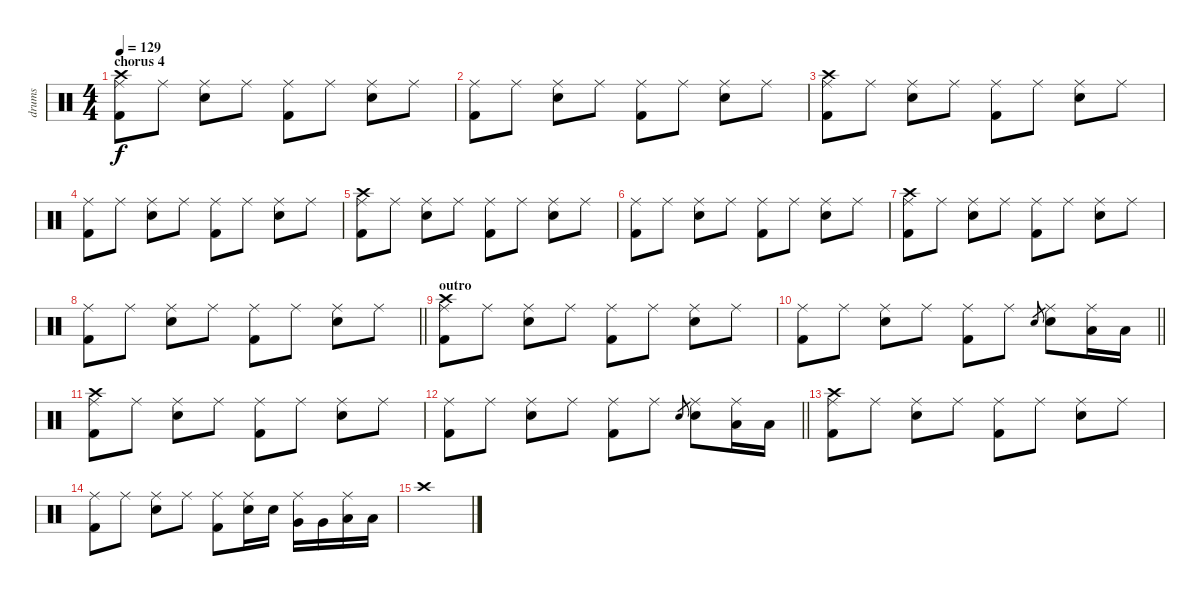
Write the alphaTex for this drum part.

\track ("drums" "drums") {instrument percussion}
\staff {score}
\articulation defaults
\ts (4 4)
\section ("" "chorus 4")
\tempo 129
\clef neutral
\ks c
("Kick (hit) 2" "Ride (middle)" "Crash high (hit)").8{dy f} "Ride (middle)".8 ("Electric Snare (hit)" "Ride (middle)").8 "Ride (middle)".8 ("Kick (hit) 2" "Ride (middle)").8 "Ride (middle)".8 ("Electric Snare (hit)" "Ride (middle)").8 "Ride (middle)".8 |
("Kick (hit) 2" "Ride (middle)").8 "Ride (middle)".8 ("Electric Snare (hit)" "Ride (middle)").8 "Ride (middle)".8 ("Kick (hit) 2" "Ride (middle)").8 "Ride (middle)".8 ("Electric Snare (hit)" "Ride (middle)").8 "Ride (middle)".8 |
("Kick (hit) 2" "Ride (middle)" "Crash high (hit)").8 "Ride (middle)".8 ("Electric Snare (hit)" "Ride (middle)").8 "Ride (middle)".8 ("Kick (hit) 2" "Ride (middle)").8 "Ride (middle)".8 ("Electric Snare (hit)" "Ride (middle)").8 "Ride (middle)".8 |
("Kick (hit) 2" "Ride (middle)").8 "Ride (middle)".8 ("Electric Snare (hit)" "Ride (middle)").8 "Ride (middle)".8 ("Kick (hit) 2" "Ride (middle)").8 "Ride (middle)".8 ("Electric Snare (hit)" "Ride (middle)").8 "Ride (middle)".8 |
("Kick (hit) 2" "Ride (middle)" "Crash high (hit)").8 "Ride (middle)".8 ("Electric Snare (hit)" "Ride (middle)").8 "Ride (middle)".8 ("Kick (hit) 2" "Ride (middle)").8 "Ride (middle)".8 ("Electric Snare (hit)" "Ride (middle)").8 "Ride (middle)".8 |
("Kick (hit) 2" "Ride (middle)").8 "Ride (middle)".8 ("Electric Snare (hit)" "Ride (middle)").8 "Ride (middle)".8 ("Kick (hit) 2" "Ride (middle)").8 "Ride (middle)".8 ("Electric Snare (hit)" "Ride (middle)").8 "Ride (middle)".8 |
("Kick (hit) 2" "Ride (middle)" "Crash high (hit)").8 "Ride (middle)".8 ("Electric Snare (hit)" "Ride (middle)").8 "Ride (middle)".8 ("Kick (hit) 2" "Ride (middle)").8 "Ride (middle)".8 ("Electric Snare (hit)" "Ride (middle)").8 "Ride (middle)".8 |
\barLineRight lightlight
("Kick (hit) 2" "Ride (middle)").8 "Ride (middle)".8 ("Electric Snare (hit)" "Ride (middle)").8 "Ride (middle)".8 ("Kick (hit) 2" "Ride (middle)").8 "Ride (middle)".8 ("Electric Snare (hit)" "Ride (middle)").8 "Ride (middle)".8 |
\section ("" "outro")
("Kick (hit) 2" "Ride (middle)" "Crash high (hit)").8 "Ride (middle)".8 ("Electric Snare (hit)" "Ride (middle)").8 "Ride (middle)".8 ("Kick (hit) 2" "Ride (middle)").8 "Ride (middle)".8 ("Electric Snare (hit)" "Ride (middle)").8 "Ride (middle)".8 |
\barLineRight lightlight
("Kick (hit) 2" "Ride (middle)").8 "Ride (middle)".8 ("Electric Snare (hit)" "Ride (middle)").8 "Ride (middle)".8 ("Kick (hit) 2" "Ride (middle)").8 "Ride (middle)".8 "Electric Snare (hit)".8{gr} ("Electric Snare (hit)" "Ride (middle)").8 ("Low Tom (hit)" "Ride (middle)").16 "Low Tom (hit)".16 |
("Kick (hit) 2" "Ride (middle)" "Crash high (hit)").8 "Ride (middle)".8 ("Electric Snare (hit)" "Ride (middle)").8 "Ride (middle)".8 ("Kick (hit) 2" "Ride (middle)").8 "Ride (middle)".8 ("Electric Snare (hit)" "Ride (middle)").8 "Ride (middle)".8 |
\barLineRight lightlight
("Kick (hit) 2" "Ride (middle)").8 "Ride (middle)".8 ("Electric Snare (hit)" "Ride (middle)").8 "Ride (middle)".8 ("Kick (hit) 2" "Ride (middle)").8 "Ride (middle)".8 "Electric Snare (hit)".8{gr} ("Electric Snare (hit)" "Ride (middle)").8 ("Low Tom (hit)" "Ride (middle)").16 "Low Tom (hit)".16 |
("Kick (hit) 2" "Ride (middle)" "Crash high (hit)").8 "Ride (middle)".8 ("Electric Snare (hit)" "Ride (middle)").8 "Ride (middle)".8 ("Kick (hit) 2" "Ride (middle)").8 "Ride (middle)".8 ("Electric Snare (hit)" "Ride (middle)").8 "Ride (middle)".8 |
("Kick (hit) 2" "Ride (middle)").8 "Ride (middle)".8 ("Electric Snare (hit)" "Ride (middle)").8 "Ride (middle)".8 ("Kick (hit) 2" "Ride (middle)").8 ("Electric Snare (hit)" "Ride (middle)").16 "Electric Snare (hit)".16 ("Very Low Tom (hit)" "Ride (middle)").16 "Very Low Tom (hit)".16 ("Low Tom (hit)" "Ride (middle)").16 "Low Tom (hit)".16 |
"Crash high (hit)".1
